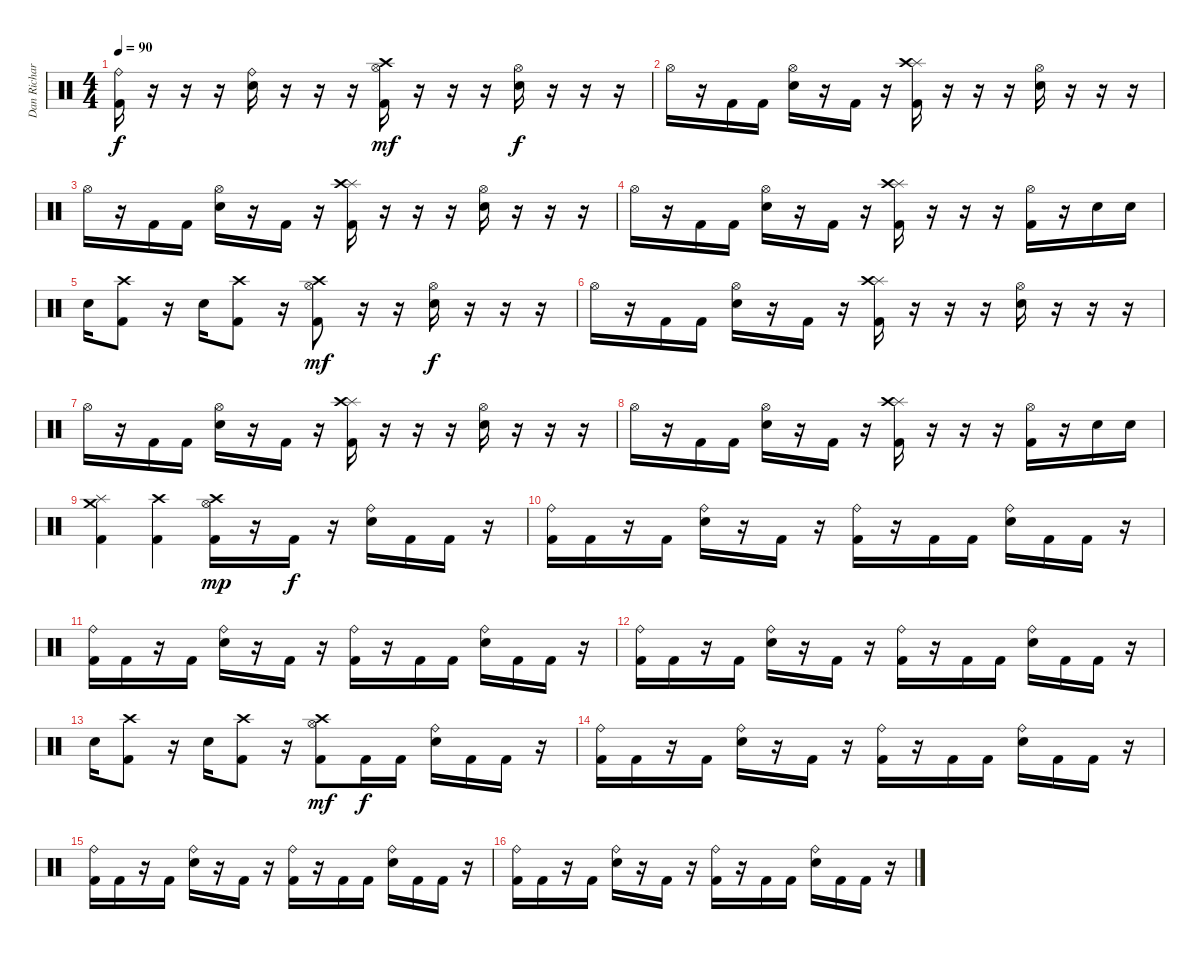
\track ("Dan Richardson" "Dan Richar") {instrument percussion}
\staff {score}
\articulation defaults
\ts (4 4)
\tempo 90
\clef neutral
\ks c
("Ride (bell)" "Kick (hit) 2").16{dy f} r.16 r.16 r.16 ("Ride (bell)" "Snare (hit) 2").16 r.16 r.16 r.16 ("Hi-Hat (open)" "Crash high (hit)" "Kick (hit) 2").16{dy mf} r.16 r.16 r.16 ("Hi-Hat (open)" "Snare (hit) 2").16{dy f} r.16 r.16 r.16 |
"Hi-Hat (open)".16 r.16 "Kick (hit) 2".16 "Kick (hit) 2".16 ("Hi-Hat (open)" "Snare (hit) 2").16 r.16 "Kick (hit) 2".16 r.16 ("Splash (hit)" "Crash high (hit)" "Kick (hit) 2").16 r.16 r.16 r.16 ("Hi-Hat (open)" "Snare (hit) 2").16 r.16 r.16 r.16 |
"Hi-Hat (open)".16 r.16 "Kick (hit) 2".16 "Kick (hit) 2".16 ("Hi-Hat (open)" "Snare (hit) 2").16 r.16 "Kick (hit) 2".16 r.16 ("Splash (hit)" "Crash high (hit)" "Kick (hit) 2").16 r.16 r.16 r.16 ("Hi-Hat (open)" "Snare (hit) 2").16 r.16 r.16 r.16 |
"Hi-Hat (open)".16 r.16 "Kick (hit) 2".16 "Kick (hit) 2".16 ("Hi-Hat (open)" "Snare (hit) 2").16 r.16 "Kick (hit) 2".16 r.16 ("Splash (hit)" "Crash high (hit)" "Kick (hit) 2").16 r.16 r.16 r.16 ("Hi-Hat (open)" "Kick (hit) 2").16 r.16 "Snare (hit) 2".16 "Snare (hit) 2".16 |
"Snare (hit) 2".16 ("Crash high (hit)" "Kick (hit) 2").8 r.16 "Snare (hit) 2".16 ("Crash high (hit)" "Kick (hit) 2").8 r.16 ("Crash high (hit)" "Hi-Hat (open)" "Kick (hit) 2").8{dy mf} r.16 r.16 ("Hi-Hat (open)" "Snare (hit) 2").16{dy f} r.16 r.16 r.16 |
"Hi-Hat (open)".16 r.16 "Kick (hit) 2".16 "Kick (hit) 2".16 ("Hi-Hat (open)" "Snare (hit) 2").16 r.16 "Kick (hit) 2".16 r.16 ("Splash (hit)" "Crash high (hit)" "Kick (hit) 2").16 r.16 r.16 r.16 ("Hi-Hat (open)" "Snare (hit) 2").16 r.16 r.16 r.16 |
"Hi-Hat (open)".16 r.16 "Kick (hit) 2".16 "Kick (hit) 2".16 ("Hi-Hat (open)" "Snare (hit) 2").16 r.16 "Kick (hit) 2".16 r.16 ("Splash (hit)" "Crash high (hit)" "Kick (hit) 2").16 r.16 r.16 r.16 ("Hi-Hat (open)" "Snare (hit) 2").16 r.16 r.16 r.16 |
"Hi-Hat (open)".16 r.16 "Kick (hit) 2".16 "Kick (hit) 2".16 ("Hi-Hat (open)" "Snare (hit) 2").16 r.16 "Kick (hit) 2".16 r.16 ("Splash (hit)" "Crash high (hit)" "Kick (hit) 2").16 r.16 r.16 r.16 ("Hi-Hat (open)" "Kick (hit) 2").16 r.16 "Snare (hit) 2".16 "Snare (hit) 2".16 |
("Crash medium (hit)" "Splash (hit)" "Kick (hit) 2").4 ("Crash high (hit)" "Kick (hit) 2").4 ("Crash high (hit)" "Hi-Hat (open)" "Kick (hit) 2").16{dy mp} r.16 "Kick (hit) 2".16{dy f} r.16 ("Ride (bell)" "Snare (hit) 2").16 "Kick (hit) 2".16 "Kick (hit) 2".16 r.16 |
("Ride (bell)" "Kick (hit) 2").16 "Kick (hit) 2".16 r.16 "Kick (hit) 2".16 ("Ride (bell)" "Snare (hit) 2").16 r.16 "Kick (hit) 2".16 r.16 ("Ride (bell)" "Kick (hit) 2").16 r.16 "Kick (hit) 2".16 "Kick (hit) 2".16 ("Ride (bell)" "Snare (hit) 2").16 "Kick (hit) 2".16 "Kick (hit) 2".16 r.16 |
("Ride (bell)" "Kick (hit) 2").16 "Kick (hit) 2".16 r.16 "Kick (hit) 2".16 ("Ride (bell)" "Snare (hit) 2").16 r.16 "Kick (hit) 2".16 r.16 ("Ride (bell)" "Kick (hit) 2").16 r.16 "Kick (hit) 2".16 "Kick (hit) 2".16 ("Ride (bell)" "Snare (hit) 2").16 "Kick (hit) 2".16 "Kick (hit) 2".16 r.16 |
("Ride (bell)" "Kick (hit) 2").16 "Kick (hit) 2".16 r.16 "Kick (hit) 2".16 ("Ride (bell)" "Snare (hit) 2").16 r.16 "Kick (hit) 2".16 r.16 ("Ride (bell)" "Kick (hit) 2").16 r.16 "Kick (hit) 2".16 "Kick (hit) 2".16 ("Ride (bell)" "Snare (hit) 2").16 "Kick (hit) 2".16 "Kick (hit) 2".16 r.16 |
"Snare (hit) 2".16 ("Crash high (hit)" "Kick (hit) 2").8 r.16 "Snare (hit) 2".16 ("Crash high (hit)" "Kick (hit) 2").8 r.16 ("Crash high (hit)" "Hi-Hat (open)" "Kick (hit) 2").8{dy mf} "Kick (hit) 2".16{dy f} "Kick (hit) 2".16 ("Ride (bell)" "Snare (hit) 2").16 "Kick (hit) 2".16 "Kick (hit) 2".16 r.16 |
("Ride (bell)" "Kick (hit) 2").16 "Kick (hit) 2".16 r.16 "Kick (hit) 2".16 ("Ride (bell)" "Snare (hit) 2").16 r.16 "Kick (hit) 2".16 r.16 ("Ride (bell)" "Kick (hit) 2").16 r.16 "Kick (hit) 2".16 "Kick (hit) 2".16 ("Ride (bell)" "Snare (hit) 2").16 "Kick (hit) 2".16 "Kick (hit) 2".16 r.16 |
("Ride (bell)" "Kick (hit) 2").16 "Kick (hit) 2".16 r.16 "Kick (hit) 2".16 ("Ride (bell)" "Snare (hit) 2").16 r.16 "Kick (hit) 2".16 r.16 ("Ride (bell)" "Kick (hit) 2").16 r.16 "Kick (hit) 2".16 "Kick (hit) 2".16 ("Ride (bell)" "Snare (hit) 2").16 "Kick (hit) 2".16 "Kick (hit) 2".16 r.16 |
("Ride (bell)" "Kick (hit) 2").16 "Kick (hit) 2".16 r.16 "Kick (hit) 2".16 ("Ride (bell)" "Snare (hit) 2").16 r.16 "Kick (hit) 2".16 r.16 ("Ride (bell)" "Kick (hit) 2").16 r.16 "Kick (hit) 2".16 "Kick (hit) 2".16 ("Ride (bell)" "Snare (hit) 2").16 "Kick (hit) 2".16 "Kick (hit) 2".16 r.16
